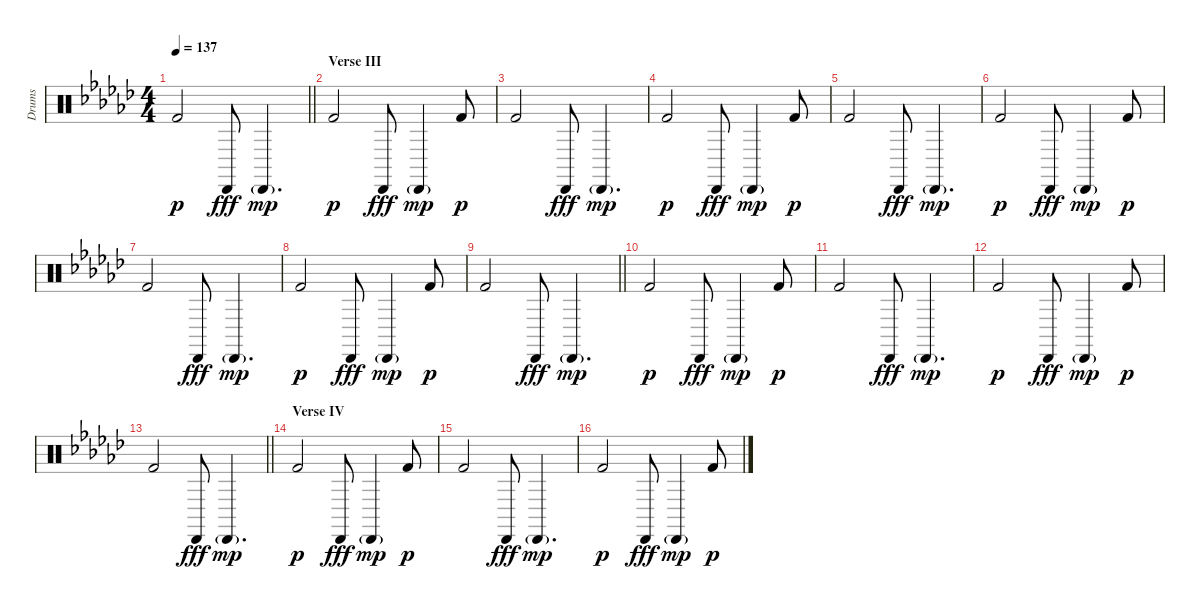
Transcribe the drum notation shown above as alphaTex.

\track ("Drums" "Drums") {instrument percussion}
\staff
\articulation defaults
\ts (4 4)
\tempo 137
\clef neutral
\barLineRight lightlight
\ks ebminor "Kick (hit) 2".2{dy p} "Cabasa (hit)".8{dy fff} "Cabasa (hit)"{g}.4{d dy mp}
|
\section ("" "Verse III")
"Kick (hit) 2".2{dy p} "Cabasa (hit)".8{dy fff} "Cabasa (hit)"{g}.4{dy mp} "Kick (hit) 2".8{dy p} |
"Kick (hit) 2".2 "Cabasa (hit)".8{dy fff} "Cabasa (hit)"{g}.4{d dy mp} |
"Kick (hit) 2".2{dy p} "Cabasa (hit)".8{dy fff} "Cabasa (hit)"{g}.4{dy mp} "Kick (hit) 2".8{dy p} |
"Kick (hit) 2".2 "Cabasa (hit)".8{dy fff} "Cabasa (hit)"{g}.4{d dy mp} |
"Kick (hit) 2".2{dy p} "Cabasa (hit)".8{dy fff} "Cabasa (hit)"{g}.4{dy mp} "Kick (hit) 2".8{dy p} |
"Kick (hit) 2".2 "Cabasa (hit)".8{dy fff} "Cabasa (hit)"{g}.4{d dy mp} |
"Kick (hit) 2".2{dy p} "Cabasa (hit)".8{dy fff} "Cabasa (hit)"{g}.4{dy mp} "Kick (hit) 2".8{dy p} |
\barLineRight lightlight "Kick (hit) 2".2 "Cabasa (hit)".8{dy fff} "Cabasa (hit)"{g}.4{d dy mp}
|
"Kick (hit) 2".2{dy p} "Cabasa (hit)".8{dy fff} "Cabasa (hit)"{g}.4{dy mp} "Kick (hit) 2".8{dy p} |
"Kick (hit) 2".2 "Cabasa (hit)".8{dy fff} "Cabasa (hit)"{g}.4{d dy mp} |
"Kick (hit) 2".2{dy p} "Cabasa (hit)".8{dy fff} "Cabasa (hit)"{g}.4{dy mp} "Kick (hit) 2".8{dy p} |
\barLineRight lightlight "Kick (hit) 2".2 "Cabasa (hit)".8{dy fff} "Cabasa (hit)"{g}.4{d dy mp}
|
\section ("" "Verse IV")
"Kick (hit) 2".2{dy p} "Cabasa (hit)".8{dy fff} "Cabasa (hit)"{g}.4{dy mp} "Kick (hit) 2".8{dy p} |
"Kick (hit) 2".2 "Cabasa (hit)".8{dy fff} "Cabasa (hit)"{g}.4{d dy mp} |
"Kick (hit) 2".2{dy p} "Cabasa (hit)".8{dy fff} "Cabasa (hit)"{g}.4{dy mp} "Kick (hit) 2".8{dy p}
